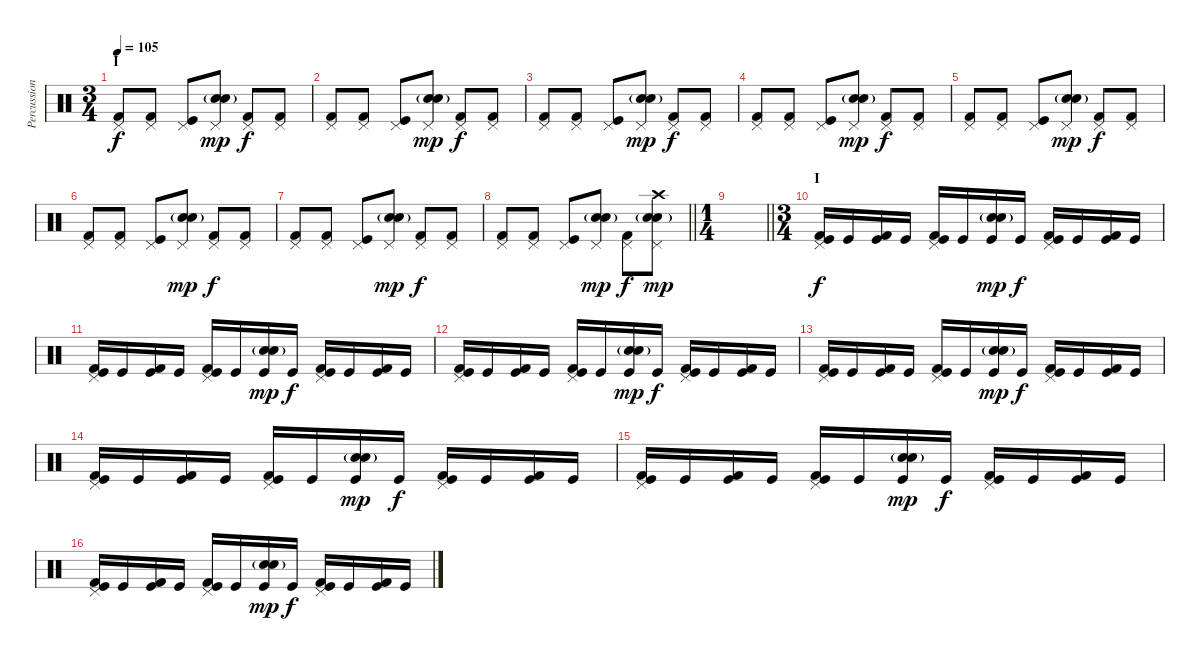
\track ("Percussion" "Percussion") {instrument percussion}
\staff {score}
\articulation defaults
\ts (3 4)
\section ("" "I")
\tempo 105
\clef neutral
\ks c
("Kick (hit) 2" "Pedal Hi-Hat (hit)").8{dy f} ("Kick (hit) 2" "Pedal Hi-Hat (hit)").8 ("Kick (hit)" "Pedal Hi-Hat (hit)").8 ("Electric Snare (hit)" "Snare (hit) 2"{g} "Pedal Hi-Hat (hit)").8{dy mp} ("Kick (hit) 2" "Pedal Hi-Hat (hit)").8{dy f} ("Kick (hit) 2" "Pedal Hi-Hat (hit)").8 |
("Kick (hit) 2" "Pedal Hi-Hat (hit)").8 ("Kick (hit) 2" "Pedal Hi-Hat (hit)").8 ("Kick (hit)" "Pedal Hi-Hat (hit)").8 ("Electric Snare (hit)" "Snare (hit) 2"{g} "Pedal Hi-Hat (hit)").8{dy mp} ("Kick (hit) 2" "Pedal Hi-Hat (hit)").8{dy f} ("Kick (hit) 2" "Pedal Hi-Hat (hit)").8 |
("Kick (hit) 2" "Pedal Hi-Hat (hit)").8 ("Kick (hit) 2" "Pedal Hi-Hat (hit)").8 ("Kick (hit)" "Pedal Hi-Hat (hit)").8 ("Electric Snare (hit)" "Snare (hit) 2"{g} "Pedal Hi-Hat (hit)").8{dy mp} ("Kick (hit) 2" "Pedal Hi-Hat (hit)").8{dy f} ("Kick (hit) 2" "Pedal Hi-Hat (hit)").8 |
("Kick (hit) 2" "Pedal Hi-Hat (hit)").8 ("Kick (hit) 2" "Pedal Hi-Hat (hit)").8 ("Kick (hit)" "Pedal Hi-Hat (hit)").8 ("Electric Snare (hit)" "Snare (hit) 2"{g} "Pedal Hi-Hat (hit)").8{dy mp} ("Kick (hit) 2" "Pedal Hi-Hat (hit)").8{dy f} ("Kick (hit) 2" "Pedal Hi-Hat (hit)").8 |
("Kick (hit) 2" "Pedal Hi-Hat (hit)").8 ("Kick (hit) 2" "Pedal Hi-Hat (hit)").8 ("Kick (hit)" "Pedal Hi-Hat (hit)").8 ("Electric Snare (hit)" "Snare (hit) 2"{g} "Pedal Hi-Hat (hit)").8{dy mp} ("Kick (hit) 2" "Pedal Hi-Hat (hit)").8{dy f} ("Kick (hit) 2" "Pedal Hi-Hat (hit)").8 |
("Kick (hit) 2" "Pedal Hi-Hat (hit)").8 ("Kick (hit) 2" "Pedal Hi-Hat (hit)").8 ("Kick (hit)" "Pedal Hi-Hat (hit)").8 ("Electric Snare (hit)" "Snare (hit) 2"{g} "Pedal Hi-Hat (hit)").8{dy mp} ("Kick (hit) 2" "Pedal Hi-Hat (hit)").8{dy f} ("Kick (hit) 2" "Pedal Hi-Hat (hit)").8 |
("Kick (hit) 2" "Pedal Hi-Hat (hit)").8 ("Kick (hit) 2" "Pedal Hi-Hat (hit)").8 ("Kick (hit)" "Pedal Hi-Hat (hit)").8 ("Electric Snare (hit)" "Snare (hit) 2"{g} "Pedal Hi-Hat (hit)").8{dy mp} ("Kick (hit) 2" "Pedal Hi-Hat (hit)").8{dy f} ("Kick (hit) 2" "Pedal Hi-Hat (hit)").8 |
\barLineRight lightlight
("Kick (hit) 2" "Pedal Hi-Hat (hit)").8 ("Kick (hit) 2" "Pedal Hi-Hat (hit)").8 ("Kick (hit)" "Pedal Hi-Hat (hit)").8 ("Electric Snare (hit)" "Snare (hit) 2"{g} "Pedal Hi-Hat (hit)").8{dy mp} ("Kick (hit) 2" "Pedal Hi-Hat (hit)").8{dy f} ("Crash high (hit)" "Electric Snare (hit)" "Snare (hit) 2"{g} "Pedal Hi-Hat (hit)").8{dy mp} |
\ts (1 4)
\barLineRight lightlight
|
\ts (3 4)
\section ("" "I")
("Kick (hit) 2" "Kick (hit)" "Pedal Hi-Hat (hit)").16{dy f} "Kick (hit)".16 ("Kick (hit) 2" "Kick (hit)").16 "Kick (hit)".16 ("Kick (hit) 2" "Kick (hit)" "Pedal Hi-Hat (hit)").16 "Kick (hit)".16 ("Electric Snare (hit)" "Snare (hit) 2"{g} "Kick (hit)").16{dy mp} "Kick (hit)".16{dy f} ("Kick (hit) 2" "Kick (hit)" "Pedal Hi-Hat (hit)").16 "Kick (hit)".16 ("Kick (hit) 2" "Kick (hit)").16 "Kick (hit)".16 |
("Kick (hit) 2" "Kick (hit)" "Pedal Hi-Hat (hit)").16 "Kick (hit)".16 ("Kick (hit) 2" "Kick (hit)").16 "Kick (hit)".16 ("Kick (hit) 2" "Kick (hit)" "Pedal Hi-Hat (hit)").16 "Kick (hit)".16 ("Electric Snare (hit)" "Snare (hit) 2"{g} "Kick (hit)").16{dy mp} "Kick (hit)".16{dy f} ("Kick (hit) 2" "Kick (hit)" "Pedal Hi-Hat (hit)").16 "Kick (hit)".16 ("Kick (hit) 2" "Kick (hit)").16 "Kick (hit)".16 |
("Kick (hit) 2" "Kick (hit)" "Pedal Hi-Hat (hit)").16 "Kick (hit)".16 ("Kick (hit) 2" "Kick (hit)").16 "Kick (hit)".16 ("Kick (hit) 2" "Kick (hit)" "Pedal Hi-Hat (hit)").16 "Kick (hit)".16 ("Electric Snare (hit)" "Snare (hit) 2"{g} "Kick (hit)").16{dy mp} "Kick (hit)".16{dy f} ("Kick (hit) 2" "Kick (hit)" "Pedal Hi-Hat (hit)").16 "Kick (hit)".16 ("Kick (hit) 2" "Kick (hit)").16 "Kick (hit)".16 |
("Kick (hit) 2" "Kick (hit)" "Pedal Hi-Hat (hit)").16 "Kick (hit)".16 ("Kick (hit) 2" "Kick (hit)").16 "Kick (hit)".16 ("Kick (hit) 2" "Kick (hit)" "Pedal Hi-Hat (hit)").16 "Kick (hit)".16 ("Electric Snare (hit)" "Snare (hit) 2"{g} "Kick (hit)").16{dy mp} "Kick (hit)".16{dy f} ("Kick (hit) 2" "Kick (hit)" "Pedal Hi-Hat (hit)").16 "Kick (hit)".16 ("Kick (hit) 2" "Kick (hit)").16 "Kick (hit)".16 |
("Kick (hit) 2" "Kick (hit)" "Pedal Hi-Hat (hit)").16 "Kick (hit)".16 ("Kick (hit) 2" "Kick (hit)").16 "Kick (hit)".16 ("Kick (hit) 2" "Kick (hit)" "Pedal Hi-Hat (hit)").16 "Kick (hit)".16 ("Electric Snare (hit)" "Snare (hit) 2"{g} "Kick (hit)").16{dy mp} "Kick (hit)".16{dy f} ("Kick (hit) 2" "Kick (hit)" "Pedal Hi-Hat (hit)").16 "Kick (hit)".16 ("Kick (hit) 2" "Kick (hit)").16 "Kick (hit)".16 |
("Kick (hit) 2" "Kick (hit)" "Pedal Hi-Hat (hit)").16 "Kick (hit)".16 ("Kick (hit) 2" "Kick (hit)").16 "Kick (hit)".16 ("Kick (hit) 2" "Kick (hit)" "Pedal Hi-Hat (hit)").16 "Kick (hit)".16 ("Electric Snare (hit)" "Snare (hit) 2"{g} "Kick (hit)").16{dy mp} "Kick (hit)".16{dy f} ("Kick (hit) 2" "Kick (hit)" "Pedal Hi-Hat (hit)").16 "Kick (hit)".16 ("Kick (hit) 2" "Kick (hit)").16 "Kick (hit)".16 |
("Kick (hit) 2" "Kick (hit)" "Pedal Hi-Hat (hit)").16 "Kick (hit)".16 ("Kick (hit) 2" "Kick (hit)").16 "Kick (hit)".16 ("Kick (hit) 2" "Kick (hit)" "Pedal Hi-Hat (hit)").16 "Kick (hit)".16 ("Electric Snare (hit)" "Snare (hit) 2"{g} "Kick (hit)").16{dy mp} "Kick (hit)".16{dy f} ("Kick (hit) 2" "Kick (hit)" "Pedal Hi-Hat (hit)").16 "Kick (hit)".16 ("Kick (hit) 2" "Kick (hit)").16 "Kick (hit)".16
